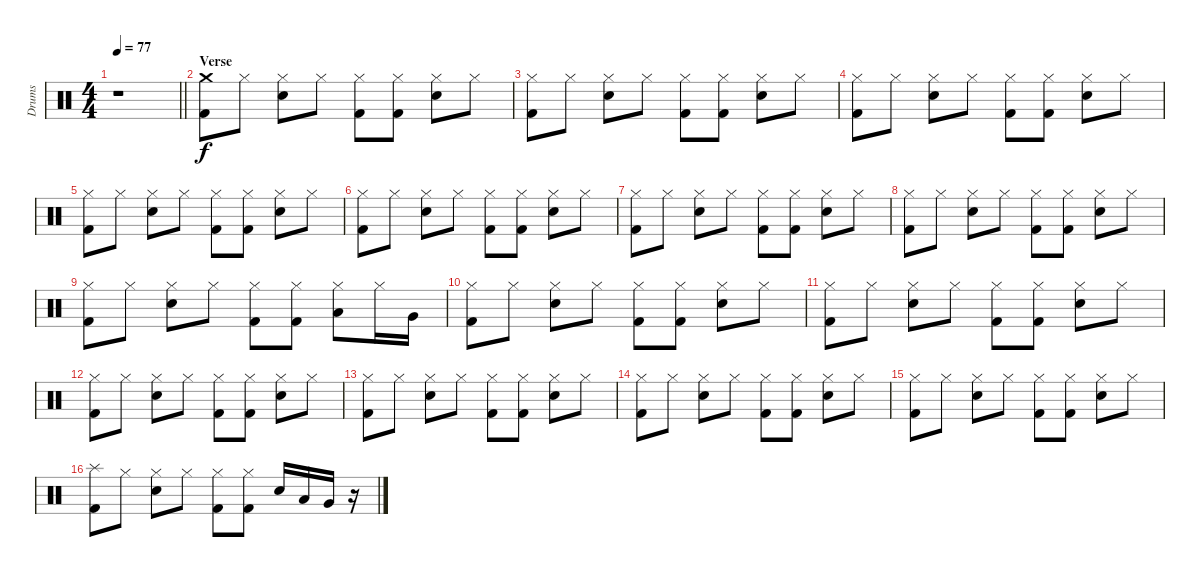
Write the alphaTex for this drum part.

\track ("Drums" "Drums") {instrument percussion}
\staff {score}
\articulation defaults
\ts (4 4)
\tempo 77
\clef neutral
\barLineRight lightlight
\ks c
r.1{dy f} |
\section ("" "Verse")
("Crash medium (hit)" "Kick (hit) 2").8 "Hi-Hat (closed)".8 ("Hi-Hat (closed)" "Electric Snare (hit)").8 "Hi-Hat (closed)".8 ("Hi-Hat (closed)" "Kick (hit) 2").8 ("Hi-Hat (closed)" "Kick (hit) 2").8 ("Hi-Hat (closed)" "Electric Snare (hit)").8 "Hi-Hat (closed)".8 |
("Hi-Hat (closed)" "Kick (hit) 2").8 "Hi-Hat (closed)".8 ("Hi-Hat (closed)" "Electric Snare (hit)").8 "Hi-Hat (closed)".8 ("Hi-Hat (closed)" "Kick (hit) 2").8 ("Hi-Hat (closed)" "Kick (hit) 2").8 ("Hi-Hat (closed)" "Electric Snare (hit)").8 "Hi-Hat (closed)".8 |
("Hi-Hat (closed)" "Kick (hit) 2").8 "Hi-Hat (closed)".8 ("Hi-Hat (closed)" "Electric Snare (hit)").8 "Hi-Hat (closed)".8 ("Hi-Hat (closed)" "Kick (hit) 2").8 ("Hi-Hat (closed)" "Kick (hit) 2").8 ("Hi-Hat (closed)" "Electric Snare (hit)").8 "Hi-Hat (closed)".8 |
("Hi-Hat (closed)" "Kick (hit) 2").8 "Hi-Hat (closed)".8 ("Hi-Hat (closed)" "Electric Snare (hit)").8 "Hi-Hat (closed)".8 ("Hi-Hat (closed)" "Kick (hit) 2").8 ("Hi-Hat (closed)" "Kick (hit) 2").8 ("Hi-Hat (closed)" "Electric Snare (hit)").8 "Hi-Hat (closed)".8 |
("Hi-Hat (closed)" "Kick (hit) 2").8 "Hi-Hat (closed)".8 ("Hi-Hat (closed)" "Electric Snare (hit)").8 "Hi-Hat (closed)".8 ("Hi-Hat (closed)" "Kick (hit) 2").8 ("Hi-Hat (closed)" "Kick (hit) 2").8 ("Hi-Hat (closed)" "Electric Snare (hit)").8 "Hi-Hat (closed)".8 |
("Hi-Hat (closed)" "Kick (hit) 2").8 "Hi-Hat (closed)".8 ("Hi-Hat (closed)" "Electric Snare (hit)").8 "Hi-Hat (closed)".8 ("Hi-Hat (closed)" "Kick (hit) 2").8 ("Hi-Hat (closed)" "Kick (hit) 2").8 ("Hi-Hat (closed)" "Electric Snare (hit)").8 "Hi-Hat (closed)".8 |
("Hi-Hat (closed)" "Kick (hit) 2").8 "Hi-Hat (closed)".8 ("Hi-Hat (closed)" "Electric Snare (hit)").8 "Hi-Hat (closed)".8 ("Hi-Hat (closed)" "Kick (hit) 2").8 ("Hi-Hat (closed)" "Kick (hit) 2").8 ("Hi-Hat (closed)" "Electric Snare (hit)").8 "Hi-Hat (closed)".8 |
("Hi-Hat (closed)" "Kick (hit) 2").8 "Hi-Hat (closed)".8 ("Hi-Hat (closed)" "Electric Snare (hit)").8 "Hi-Hat (closed)".8 ("Hi-Hat (closed)" "Kick (hit) 2").8 ("Hi-Hat (closed)" "Kick (hit) 2").8 ("Hi-Hat (closed)" "Low Tom (hit)").8 "Hi-Hat (closed)".16 "Very Low Tom (hit)".16 |
("Hi-Hat (closed)" "Kick (hit) 2").8 "Hi-Hat (closed)".8 ("Hi-Hat (closed)" "Electric Snare (hit)").8 "Hi-Hat (closed)".8 ("Hi-Hat (closed)" "Kick (hit) 2").8 ("Hi-Hat (closed)" "Kick (hit) 2").8 ("Hi-Hat (closed)" "Electric Snare (hit)").8 "Hi-Hat (closed)".8 |
("Hi-Hat (closed)" "Kick (hit) 2").8 "Hi-Hat (closed)".8 ("Hi-Hat (closed)" "Electric Snare (hit)").8 "Hi-Hat (closed)".8 ("Hi-Hat (closed)" "Kick (hit) 2").8 ("Hi-Hat (closed)" "Kick (hit) 2").8 ("Hi-Hat (closed)" "Electric Snare (hit)").8 "Hi-Hat (closed)".8 |
("Hi-Hat (closed)" "Kick (hit) 2").8 "Hi-Hat (closed)".8 ("Hi-Hat (closed)" "Electric Snare (hit)").8 "Hi-Hat (closed)".8 ("Hi-Hat (closed)" "Kick (hit) 2").8 ("Hi-Hat (closed)" "Kick (hit) 2").8 ("Hi-Hat (closed)" "Electric Snare (hit)").8 "Hi-Hat (closed)".8 |
("Hi-Hat (closed)" "Kick (hit) 2").8 "Hi-Hat (closed)".8 ("Hi-Hat (closed)" "Electric Snare (hit)").8 "Hi-Hat (closed)".8 ("Hi-Hat (closed)" "Kick (hit) 2").8 ("Hi-Hat (closed)" "Kick (hit) 2").8 ("Hi-Hat (closed)" "Electric Snare (hit)").8 "Hi-Hat (closed)".8 |
("Hi-Hat (closed)" "Kick (hit) 2").8 "Hi-Hat (closed)".8 ("Hi-Hat (closed)" "Electric Snare (hit)").8 "Hi-Hat (closed)".8 ("Hi-Hat (closed)" "Kick (hit) 2").8 ("Hi-Hat (closed)" "Kick (hit) 2").8 ("Hi-Hat (closed)" "Electric Snare (hit)").8 "Hi-Hat (closed)".8 |
("Hi-Hat (closed)" "Kick (hit) 2").8 "Hi-Hat (closed)".8 ("Hi-Hat (closed)" "Electric Snare (hit)").8 "Hi-Hat (closed)".8 ("Hi-Hat (closed)" "Kick (hit) 2").8 ("Hi-Hat (closed)" "Kick (hit) 2").8 ("Hi-Hat (closed)" "Electric Snare (hit)").8 "Hi-Hat (closed)".8 |
("Splash (hit)" "Kick (hit) 2").8 "Hi-Hat (closed)".8 ("Hi-Hat (closed)" "Electric Snare (hit)").8 "Hi-Hat (closed)".8 ("Hi-Hat (closed)" "Kick (hit) 2").8 ("Hi-Hat (closed)" "Kick (hit) 2").8 "Electric Snare (hit)".16 "Low Tom (hit)".16 "Very Low Tom (hit)".16 r.16
